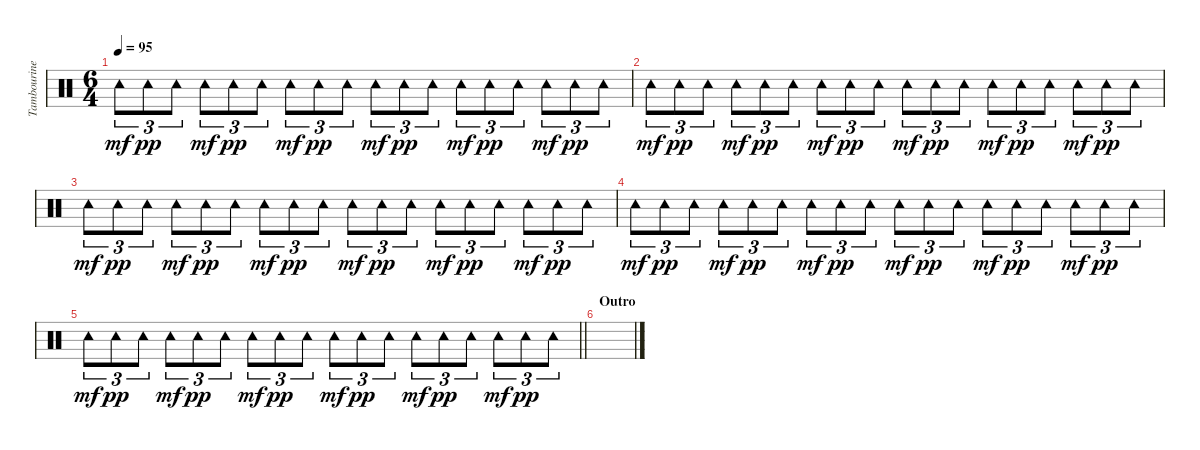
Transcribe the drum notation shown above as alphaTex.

\track ("Tambourine" "Tambourine") {instrument percussion}
\staff {score}
\articulation defaults
\ts (6 4)
\tempo 95
\clef neutral
\ks c "Tambourine (hit)".8{tu (3 2) dy mf} "Tambourine (hit)".8{tu (3 2) dy pp} "Tambourine (hit)".8{tu (3 2)} "Tambourine (hit)".8{tu (3 2) dy mf} "Tambourine (hit)".8{tu (3 2) dy pp} "Tambourine (hit)".8{tu (3 2)} "Tambourine (hit)".8{tu (3 2) dy mf} "Tambourine (hit)".8{tu (3 2) dy pp} "Tambourine (hit)".8{tu (3 2)} "Tambourine (hit)".8{tu (3 2) dy mf} "Tambourine (hit)".8{tu (3 2) dy pp} "Tambourine (hit)".8{tu (3 2)} "Tambourine (hit)".8{tu (3 2) dy mf} "Tambourine (hit)".8{tu (3 2) dy pp} "Tambourine (hit)".8{tu (3 2)} "Tambourine (hit)".8{tu (3 2) dy mf} "Tambourine (hit)".8{tu (3 2) dy pp} "Tambourine (hit)".8{tu (3 2)}
|
"Tambourine (hit)".8{tu (3 2) dy mf} "Tambourine (hit)".8{tu (3 2) dy pp} "Tambourine (hit)".8{tu (3 2)} "Tambourine (hit)".8{tu (3 2) dy mf} "Tambourine (hit)".8{tu (3 2) dy pp} "Tambourine (hit)".8{tu (3 2)} "Tambourine (hit)".8{tu (3 2) dy mf} "Tambourine (hit)".8{tu (3 2) dy pp} "Tambourine (hit)".8{tu (3 2)} "Tambourine (hit)".8{tu (3 2) dy mf} "Tambourine (hit)".8{tu (3 2) dy pp} "Tambourine (hit)".8{tu (3 2)} "Tambourine (hit)".8{tu (3 2) dy mf} "Tambourine (hit)".8{tu (3 2) dy pp} "Tambourine (hit)".8{tu (3 2)} "Tambourine (hit)".8{tu (3 2) dy mf} "Tambourine (hit)".8{tu (3 2) dy pp} "Tambourine (hit)".8{tu (3 2)} |
"Tambourine (hit)".8{tu (3 2) dy mf} "Tambourine (hit)".8{tu (3 2) dy pp} "Tambourine (hit)".8{tu (3 2)} "Tambourine (hit)".8{tu (3 2) dy mf} "Tambourine (hit)".8{tu (3 2) dy pp} "Tambourine (hit)".8{tu (3 2)} "Tambourine (hit)".8{tu (3 2) dy mf} "Tambourine (hit)".8{tu (3 2) dy pp} "Tambourine (hit)".8{tu (3 2)} "Tambourine (hit)".8{tu (3 2) dy mf} "Tambourine (hit)".8{tu (3 2) dy pp} "Tambourine (hit)".8{tu (3 2)} "Tambourine (hit)".8{tu (3 2) dy mf} "Tambourine (hit)".8{tu (3 2) dy pp} "Tambourine (hit)".8{tu (3 2)} "Tambourine (hit)".8{tu (3 2) dy mf} "Tambourine (hit)".8{tu (3 2) dy pp} "Tambourine (hit)".8{tu (3 2)} |
"Tambourine (hit)".8{tu (3 2) dy mf} "Tambourine (hit)".8{tu (3 2) dy pp} "Tambourine (hit)".8{tu (3 2)} "Tambourine (hit)".8{tu (3 2) dy mf} "Tambourine (hit)".8{tu (3 2) dy pp} "Tambourine (hit)".8{tu (3 2)} "Tambourine (hit)".8{tu (3 2) dy mf} "Tambourine (hit)".8{tu (3 2) dy pp} "Tambourine (hit)".8{tu (3 2)} "Tambourine (hit)".8{tu (3 2) dy mf} "Tambourine (hit)".8{tu (3 2) dy pp} "Tambourine (hit)".8{tu (3 2)} "Tambourine (hit)".8{tu (3 2) dy mf} "Tambourine (hit)".8{tu (3 2) dy pp} "Tambourine (hit)".8{tu (3 2)} "Tambourine (hit)".8{tu (3 2) dy mf} "Tambourine (hit)".8{tu (3 2) dy pp} "Tambourine (hit)".8{tu (3 2)} |
\barLineRight lightlight "Tambourine (hit)".8{tu (3 2) dy mf} "Tambourine (hit)".8{tu (3 2) dy pp} "Tambourine (hit)".8{tu (3 2)} "Tambourine (hit)".8{tu (3 2) dy mf} "Tambourine (hit)".8{tu (3 2) dy pp} "Tambourine (hit)".8{tu (3 2)} "Tambourine (hit)".8{tu (3 2) dy mf} "Tambourine (hit)".8{tu (3 2) dy pp} "Tambourine (hit)".8{tu (3 2)} "Tambourine (hit)".8{tu (3 2) dy mf} "Tambourine (hit)".8{tu (3 2) dy pp} "Tambourine (hit)".8{tu (3 2)} "Tambourine (hit)".8{tu (3 2) dy mf} "Tambourine (hit)".8{tu (3 2) dy pp} "Tambourine (hit)".8{tu (3 2)} "Tambourine (hit)".8{tu (3 2) dy mf} "Tambourine (hit)".8{tu (3 2) dy pp} "Tambourine (hit)".8{tu (3 2)}
|
\section ("" "Outro")
